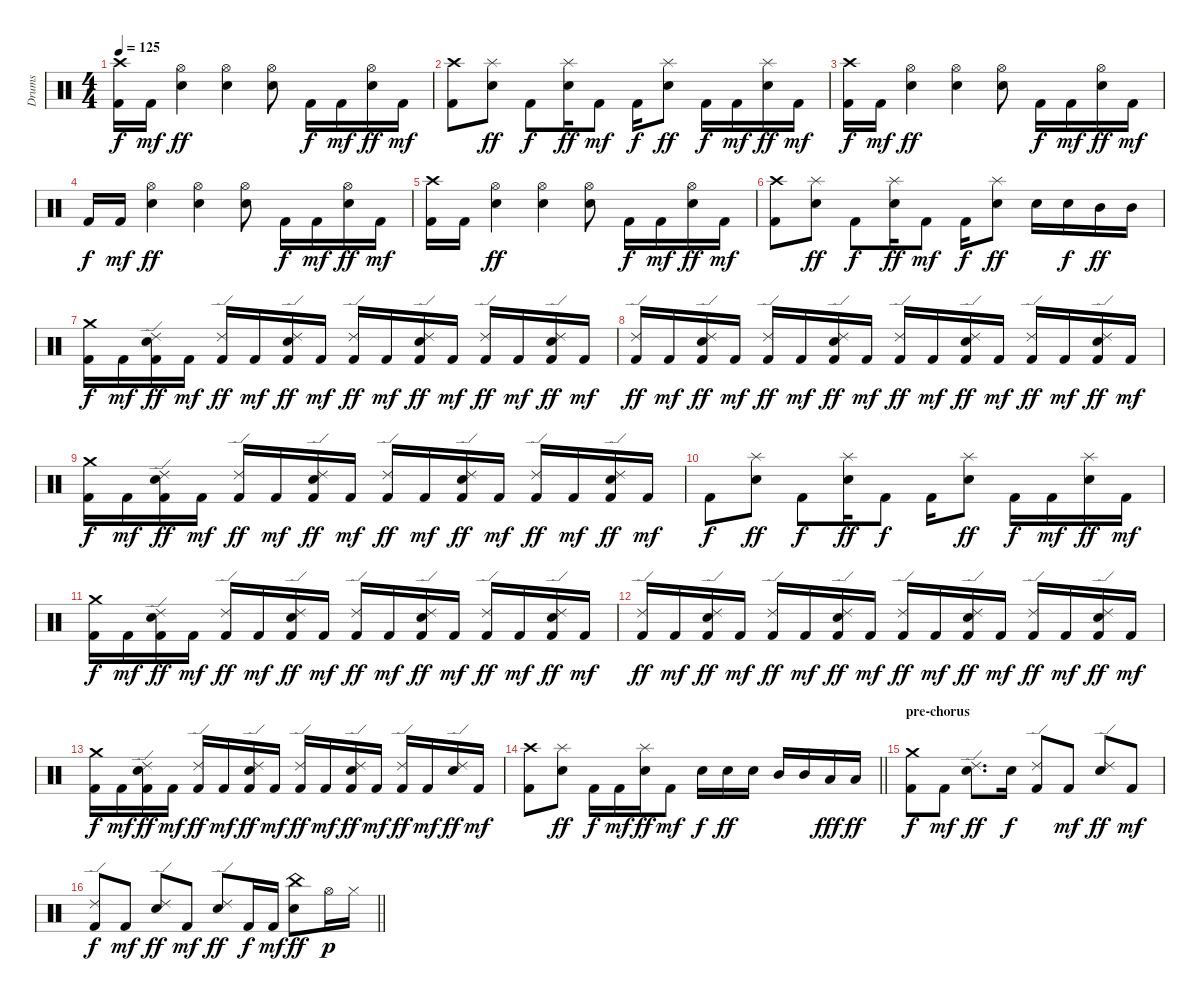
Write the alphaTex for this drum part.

\track ("Drums" "Drums") {instrument percussion}
\staff {score}
\articulation defaults
\ts (4 4)
\tempo 125
\clef neutral
\ks c
("Crash high (hit)" "Kick (hit) 2").16{dy f} "Kick (hit) 2".16{dy mf} ("Hi-Hat (open)" "Snare (hit) 2").4{dy ff} ("Hi-Hat (open)" "Snare (hit) 2").4 ("Hi-Hat (open)" "Snare (hit) 2").8 "Kick (hit) 2".16{dy f} "Kick (hit) 2".16{dy mf} ("Hi-Hat (open)" "Snare (hit) 2").16{dy ff} "Kick (hit) 2".16{dy mf} |
("Crash high (hit)" "Kick (hit) 2").8 ("Splash (hit)" "Snare (hit) 2").8{dy ff} "Kick (hit) 2".8{dy f} ("Splash (hit)" "Snare (hit) 2").16{dy ff} "Kick (hit) 2".8{dy mf} "Kick (hit) 2".16{dy f} ("Splash (hit)" "Snare (hit) 2").8{dy ff} "Kick (hit) 2".16{dy f} "Kick (hit) 2".16{dy mf} ("Splash (hit)" "Snare (hit) 2").16{dy ff} "Kick (hit) 2".16{dy mf} |
("Crash high (hit)" "Kick (hit) 2").16{dy f} "Kick (hit) 2".16{dy mf} ("Hi-Hat (open)" "Snare (hit) 2").4{dy ff} ("Hi-Hat (open)" "Snare (hit) 2").4 ("Hi-Hat (open)" "Snare (hit) 2").8 "Kick (hit) 2".16{dy f} "Kick (hit) 2".16{dy mf} ("Hi-Hat (open)" "Snare (hit) 2").16{dy ff} "Kick (hit) 2".16{dy mf} |
"Kick (hit) 2".16{dy f} "Kick (hit) 2".16{dy mf} ("Hi-Hat (open)" "Snare (hit) 2").4{dy ff} ("Hi-Hat (open)" "Snare (hit) 2").4 ("Hi-Hat (open)" "Snare (hit) 2").8 "Kick (hit) 2".16{dy f} "Kick (hit) 2".16{dy mf} ("Hi-Hat (open)" "Snare (hit) 2").16{dy ff} "Kick (hit) 2".16{dy mf} |
("Crash high (hit)" "Kick (hit) 2").16 "Kick (hit) 2".16 ("Hi-Hat (open)" "Snare (hit) 2").4{dy ff} ("Hi-Hat (open)" "Snare (hit) 2").4 ("Hi-Hat (open)" "Snare (hit) 2").8 "Kick (hit) 2".16{dy f} "Kick (hit) 2".16{dy mf} ("Hi-Hat (open)" "Snare (hit) 2").16{dy ff} "Kick (hit) 2".16{dy mf} |
("Crash high (hit)" "Kick (hit) 2").8 ("Splash (hit)" "Snare (hit) 2").8{dy ff} "Kick (hit) 2".8{dy f} ("Splash (hit)" "Snare (hit) 2").16{dy ff} "Kick (hit) 2".8{dy mf} "Kick (hit) 2".16{dy f} ("Splash (hit)" "Snare (hit) 2").8{dy ff} "Snare (hit) 2".16 "Snare (hit) 2".16{dy f} "Mid Tom (hit)".16{dy ff} "Mid Tom (hit)".16 |
("Crash medium (hit)" "Kick (hit) 2").16{dy f} "Kick (hit) 2".16{dy mf} ("Ride (edge) 2" "Snare (hit) 2" "Kick (hit) 2").16{dy ff} "Kick (hit) 2".16{dy mf} ("Ride (edge) 2" "Kick (hit) 2").16{dy ff} "Kick (hit) 2".16{dy mf} ("Ride (edge) 2" "Snare (hit) 2" "Kick (hit) 2").16{dy ff} "Kick (hit) 2".16{dy mf} ("Ride (edge) 2" "Kick (hit) 2").16{dy ff} "Kick (hit) 2".16{dy mf} ("Ride (edge) 2" "Snare (hit) 2" "Kick (hit) 2").16{dy ff} "Kick (hit) 2".16{dy mf} ("Ride (edge) 2" "Kick (hit) 2").16{dy ff} "Kick (hit) 2".16{dy mf} ("Ride (edge) 2" "Snare (hit) 2" "Kick (hit) 2").16{dy ff} "Kick (hit) 2".16{dy mf} |
("Ride (edge) 2" "Kick (hit) 2").16{dy ff} "Kick (hit) 2".16{dy mf} ("Ride (edge) 2" "Snare (hit) 2" "Kick (hit) 2").16{dy ff} "Kick (hit) 2".16{dy mf} ("Ride (edge) 2" "Kick (hit) 2").16{dy ff} "Kick (hit) 2".16{dy mf} ("Ride (edge) 2" "Snare (hit) 2" "Kick (hit) 2").16{dy ff} "Kick (hit) 2".16{dy mf} ("Ride (edge) 2" "Kick (hit) 2").16{dy ff} "Kick (hit) 2".16{dy mf} ("Ride (edge) 2" "Snare (hit) 2" "Kick (hit) 2").16{dy ff} "Kick (hit) 2".16{dy mf} ("Ride (edge) 2" "Kick (hit) 2").16{dy ff} "Kick (hit) 2".16{dy mf} ("Ride (edge) 2" "Snare (hit) 2" "Kick (hit) 2").16{dy ff} "Kick (hit) 2".16{dy mf} |
("Crash medium (hit)" "Kick (hit) 2").16{dy f} "Kick (hit) 2".16{dy mf} ("Ride (edge) 2" "Snare (hit) 2" "Kick (hit) 2").16{dy ff} "Kick (hit) 2".16{dy mf} ("Ride (edge) 2" "Kick (hit) 2").16{dy ff} "Kick (hit) 2".16{dy mf} ("Ride (edge) 2" "Snare (hit) 2" "Kick (hit) 2").16{dy ff} "Kick (hit) 2".16{dy mf} ("Ride (edge) 2" "Kick (hit) 2").16{dy ff} "Kick (hit) 2".16{dy mf} ("Ride (edge) 2" "Snare (hit) 2" "Kick (hit) 2").16{dy ff} "Kick (hit) 2".16{dy mf} ("Ride (edge) 2" "Kick (hit) 2").16{dy ff} "Kick (hit) 2".16{dy mf} ("Ride (edge) 2" "Snare (hit) 2" "Kick (hit) 2").16{dy ff} "Kick (hit) 2".16{dy mf} |
"Kick (hit) 2".8{dy f} ("Splash (hit)" "Snare (hit) 2").8{dy ff} "Kick (hit) 2".8{dy f} ("Splash (hit)" "Snare (hit) 2").16{dy ff} "Kick (hit) 2".8{dy f} "Kick (hit) 2".16 ("Splash (hit)" "Snare (hit) 2").8{dy ff} "Kick (hit) 2".16{dy f} "Kick (hit) 2".16{dy mf} ("Splash (hit)" "Snare (hit) 2").16{dy ff} "Kick (hit) 2".16{dy mf} |
("Crash medium (hit)" "Kick (hit) 2").16{dy f} "Kick (hit) 2".16{dy mf} ("Ride (edge) 2" "Snare (hit) 2" "Kick (hit) 2").16{dy ff} "Kick (hit) 2".16{dy mf} ("Ride (edge) 2" "Kick (hit) 2").16{dy ff} "Kick (hit) 2".16{dy mf} ("Ride (edge) 2" "Snare (hit) 2" "Kick (hit) 2").16{dy ff} "Kick (hit) 2".16{dy mf} ("Ride (edge) 2" "Kick (hit) 2").16{dy ff} "Kick (hit) 2".16{dy mf} ("Ride (edge) 2" "Snare (hit) 2" "Kick (hit) 2").16{dy ff} "Kick (hit) 2".16{dy mf} ("Ride (edge) 2" "Kick (hit) 2").16{dy ff} "Kick (hit) 2".16{dy mf} ("Ride (edge) 2" "Snare (hit) 2" "Kick (hit) 2").16{dy ff} "Kick (hit) 2".16{dy mf} |
("Ride (edge) 2" "Kick (hit) 2").16{dy ff} "Kick (hit) 2".16{dy mf} ("Ride (edge) 2" "Snare (hit) 2" "Kick (hit) 2").16{dy ff} "Kick (hit) 2".16{dy mf} ("Ride (edge) 2" "Kick (hit) 2").16{dy ff} "Kick (hit) 2".16{dy mf} ("Ride (edge) 2" "Snare (hit) 2" "Kick (hit) 2").16{dy ff} "Kick (hit) 2".16{dy mf} ("Ride (edge) 2" "Kick (hit) 2").16{dy ff} "Kick (hit) 2".16{dy mf} ("Ride (edge) 2" "Snare (hit) 2" "Kick (hit) 2").16{dy ff} "Kick (hit) 2".16{dy mf} ("Ride (edge) 2" "Kick (hit) 2").16{dy ff} "Kick (hit) 2".16{dy mf} ("Ride (edge) 2" "Snare (hit) 2" "Kick (hit) 2").16{dy ff} "Kick (hit) 2".16{dy mf} |
("Crash medium (hit)" "Kick (hit) 2").16{dy f} "Kick (hit) 2".16{dy mf} ("Ride (edge) 2" "Snare (hit) 2" "Kick (hit) 2").16{dy ff} "Kick (hit) 2".16{dy mf} ("Ride (edge) 2" "Kick (hit) 2").16{dy ff} "Kick (hit) 2".16{dy mf} ("Ride (edge) 2" "Snare (hit) 2" "Kick (hit) 2").16{dy ff} "Kick (hit) 2".16{dy mf} ("Ride (edge) 2" "Kick (hit) 2").16{dy ff} "Kick (hit) 2".16{dy mf} ("Ride (edge) 2" "Snare (hit) 2" "Kick (hit) 2").16{dy ff} "Kick (hit) 2".16{dy mf} ("Ride (edge) 2" "Kick (hit) 2").16{dy ff} "Kick (hit) 2".16{dy mf} ("Ride (edge) 2" "Snare (hit) 2").16{dy ff} "Kick (hit) 2".16{dy mf} |
\barLineRight lightlight
("Crash high (hit)" "Kick (hit) 2").8 ("Splash (hit)" "Snare (hit) 2").8{dy ff} "Kick (hit) 2".16{dy f} "Kick (hit) 2".16{dy mf} ("Splash (hit)" "Snare (hit) 2").16{dy ff} "Kick (hit) 2".8{dy mf} "Snare (hit) 2".16{dy f} "Snare (hit) 2".16{dy ff} "Snare (hit) 2".16 "Mid Tom (hit)".16 "Mid Tom (hit)".16 "Low Tom (hit)".16{dy fff} "Low Tom (hit)".16{dy ff} |
\section ("" "pre-chorus")
("Crash medium (hit)" "Kick (hit) 2").8{dy f} "Kick (hit) 2".8{dy mf} ("Ride (edge) 2" "Snare (hit) 2").8{d dy ff} "Snare (hit) 2".16{dy f} ("Ride (edge) 2" "Kick (hit) 2").8 "Kick (hit) 2".8{dy mf} ("Ride (edge) 2" "Snare (hit) 2").8{dy ff} "Kick (hit) 2".8{dy mf} |
\barLineRight lightlight
("Ride (edge) 2" "Kick (hit) 2").8{dy f} "Kick (hit) 2".8{dy mf} ("Ride (edge) 2" "Snare (hit) 2").8{dy ff} "Kick (hit) 2".8{dy mf} ("Ride (edge) 2" "Snare (hit) 2").8{dy ff} "Kick (hit) 2".16{dy f} "Kick (hit) 2".16{dy mf} ("China (hit)" "Snare (hit) 2").8{dy ff} "Hi-Hat (open)".16{dy p} "Hi-Hat (closed)".16
